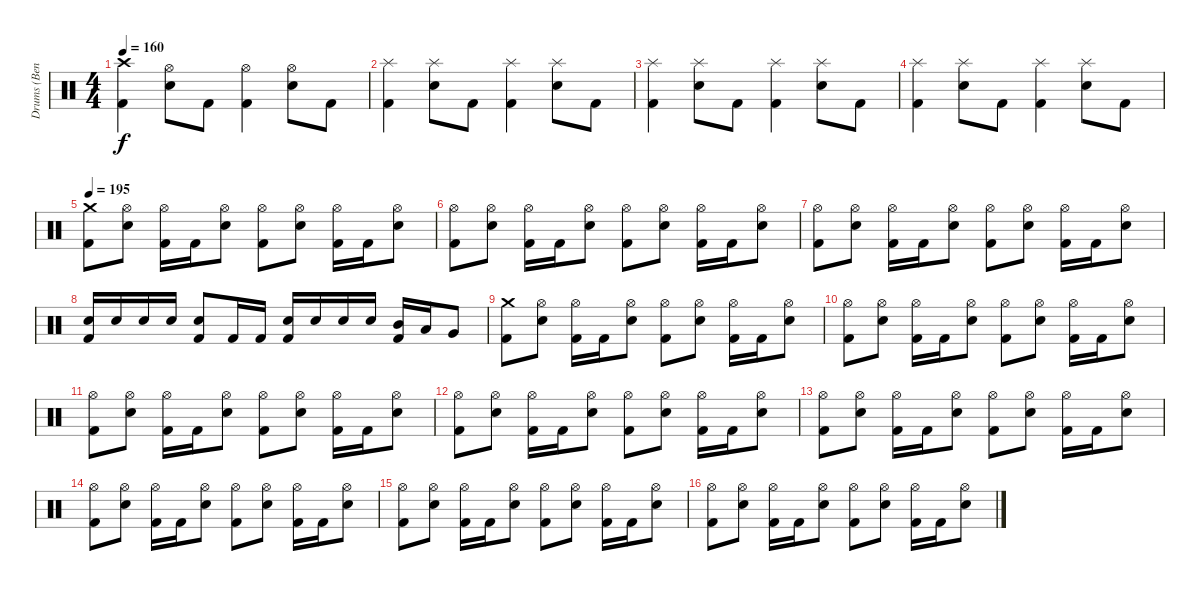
\track ("Drums (Ben)" "Drums (Ben") {instrument percussion}
\staff {score}
\articulation defaults
\ts (4 4)
\tempo 160
\clef neutral
\ks c
("Crash high (hit)" "Kick (hit) 2").4{dy f} ("Hi-Hat (open)" "Snare (hit) 2").8 "Kick (hit) 2".8 ("Hi-Hat (open)" "Kick (hit) 2").4 ("Hi-Hat (open)" "Snare (hit) 2").8 "Kick (hit) 2".8 |
("Splash (hit)" "Kick (hit) 2").4 ("Splash (hit)" "Snare (hit) 2").8 "Kick (hit) 2".8 ("Splash (hit)" "Kick (hit) 2").4 ("Splash (hit)" "Snare (hit) 2").8 "Kick (hit) 2".8 |
("Splash (hit)" "Kick (hit) 2").4 ("Splash (hit)" "Snare (hit) 2").8 "Kick (hit) 2".8 ("Splash (hit)" "Kick (hit) 2").4 ("Splash (hit)" "Snare (hit) 2").8 "Kick (hit) 2".8 |
("Splash (hit)" "Kick (hit) 2").4 ("Splash (hit)" "Snare (hit) 2").8 "Kick (hit) 2".8 ("Splash (hit)" "Kick (hit) 2").4 ("Splash (hit)" "Snare (hit) 2").8 "Kick (hit) 2".8 |
\tempo 195
("Crash medium (hit)" "Kick (hit) 2").8 ("Hi-Hat (open)" "Snare (hit) 2").8 ("Hi-Hat (open)" "Kick (hit) 2").16 "Kick (hit) 2".16 ("Hi-Hat (open)" "Snare (hit) 2").8 ("Hi-Hat (open)" "Kick (hit) 2").8 ("Hi-Hat (open)" "Snare (hit) 2").8 ("Hi-Hat (open)" "Kick (hit) 2").16 "Kick (hit) 2".16 ("Hi-Hat (open)" "Snare (hit) 2").8 |
("Hi-Hat (open)" "Kick (hit) 2").8 ("Hi-Hat (open)" "Snare (hit) 2").8 ("Hi-Hat (open)" "Kick (hit) 2").16 "Kick (hit) 2".16 ("Hi-Hat (open)" "Snare (hit) 2").8 ("Hi-Hat (open)" "Kick (hit) 2").8 ("Hi-Hat (open)" "Snare (hit) 2").8 ("Hi-Hat (open)" "Kick (hit) 2").16 "Kick (hit) 2".16 ("Hi-Hat (open)" "Snare (hit) 2").8 |
("Hi-Hat (open)" "Kick (hit) 2").8 ("Hi-Hat (open)" "Snare (hit) 2").8 ("Hi-Hat (open)" "Kick (hit) 2").16 "Kick (hit) 2".16 ("Hi-Hat (open)" "Snare (hit) 2").8 ("Hi-Hat (open)" "Kick (hit) 2").8 ("Hi-Hat (open)" "Snare (hit) 2").8 ("Hi-Hat (open)" "Kick (hit) 2").16 "Kick (hit) 2".16 ("Hi-Hat (open)" "Snare (hit) 2").8 |
("Snare (hit) 2" "Kick (hit) 2").16 "Snare (hit) 2".16 "Snare (hit) 2".16 "Snare (hit) 2".16 ("Snare (hit) 2" "Kick (hit) 2").8 "Kick (hit) 2".16 "Kick (hit) 2".16 ("Snare (hit) 2" "Kick (hit) 2").16 "Snare (hit) 2".16 "Snare (hit) 2".16 "Snare (hit) 2".16 ("Mid Tom (hit)" "Kick (hit) 2").16 "Low Tom (hit)".16 "Very Low Tom (hit)".8 |
("Crash medium (hit)" "Kick (hit) 2").8 ("Hi-Hat (open)" "Snare (hit) 2").8 ("Hi-Hat (open)" "Kick (hit) 2").16 "Kick (hit) 2".16 ("Hi-Hat (open)" "Snare (hit) 2").8 ("Hi-Hat (open)" "Kick (hit) 2").8 ("Hi-Hat (open)" "Snare (hit) 2").8 ("Hi-Hat (open)" "Kick (hit) 2").16 "Kick (hit) 2".16 ("Hi-Hat (open)" "Snare (hit) 2").8 |
("Hi-Hat (open)" "Kick (hit) 2").8 ("Hi-Hat (open)" "Snare (hit) 2").8 ("Hi-Hat (open)" "Kick (hit) 2").16 "Kick (hit) 2".16 ("Hi-Hat (open)" "Snare (hit) 2").8 ("Hi-Hat (open)" "Kick (hit) 2").8 ("Hi-Hat (open)" "Snare (hit) 2").8 ("Hi-Hat (open)" "Kick (hit) 2").16 "Kick (hit) 2".16 ("Hi-Hat (open)" "Snare (hit) 2").8 |
("Hi-Hat (open)" "Kick (hit) 2").8 ("Hi-Hat (open)" "Snare (hit) 2").8 ("Hi-Hat (open)" "Kick (hit) 2").16 "Kick (hit) 2".16 ("Hi-Hat (open)" "Snare (hit) 2").8 ("Hi-Hat (open)" "Kick (hit) 2").8 ("Hi-Hat (open)" "Snare (hit) 2").8 ("Hi-Hat (open)" "Kick (hit) 2").16 "Kick (hit) 2".16 ("Hi-Hat (open)" "Snare (hit) 2").8 |
("Hi-Hat (open)" "Kick (hit) 2").8 ("Hi-Hat (open)" "Snare (hit) 2").8 ("Hi-Hat (open)" "Kick (hit) 2").16 "Kick (hit) 2".16 ("Hi-Hat (open)" "Snare (hit) 2").8 ("Hi-Hat (open)" "Kick (hit) 2").8 ("Hi-Hat (open)" "Snare (hit) 2").8 ("Hi-Hat (open)" "Kick (hit) 2").16 "Kick (hit) 2".16 ("Hi-Hat (open)" "Snare (hit) 2").8 |
("Hi-Hat (open)" "Kick (hit) 2").8 ("Hi-Hat (open)" "Snare (hit) 2").8 ("Hi-Hat (open)" "Kick (hit) 2").16 "Kick (hit) 2".16 ("Hi-Hat (open)" "Snare (hit) 2").8 ("Hi-Hat (open)" "Kick (hit) 2").8 ("Hi-Hat (open)" "Snare (hit) 2").8 ("Hi-Hat (open)" "Kick (hit) 2").16 "Kick (hit) 2".16 ("Hi-Hat (open)" "Snare (hit) 2").8 |
("Hi-Hat (open)" "Kick (hit) 2").8 ("Hi-Hat (open)" "Snare (hit) 2").8 ("Hi-Hat (open)" "Kick (hit) 2").16 "Kick (hit) 2".16 ("Hi-Hat (open)" "Snare (hit) 2").8 ("Hi-Hat (open)" "Kick (hit) 2").8 ("Hi-Hat (open)" "Snare (hit) 2").8 ("Hi-Hat (open)" "Kick (hit) 2").16 "Kick (hit) 2".16 ("Hi-Hat (open)" "Snare (hit) 2").8 |
("Hi-Hat (open)" "Kick (hit) 2").8 ("Hi-Hat (open)" "Snare (hit) 2").8 ("Hi-Hat (open)" "Kick (hit) 2").16 "Kick (hit) 2".16 ("Hi-Hat (open)" "Snare (hit) 2").8 ("Hi-Hat (open)" "Kick (hit) 2").8 ("Hi-Hat (open)" "Snare (hit) 2").8 ("Hi-Hat (open)" "Kick (hit) 2").16 "Kick (hit) 2".16 ("Hi-Hat (open)" "Snare (hit) 2").8 |
("Hi-Hat (open)" "Kick (hit) 2").8 ("Hi-Hat (open)" "Snare (hit) 2").8 ("Hi-Hat (open)" "Kick (hit) 2").16 "Kick (hit) 2".16 ("Hi-Hat (open)" "Snare (hit) 2").8 ("Hi-Hat (open)" "Kick (hit) 2").8 ("Hi-Hat (open)" "Snare (hit) 2").8 ("Hi-Hat (open)" "Kick (hit) 2").16 "Kick (hit) 2".16 ("Hi-Hat (open)" "Snare (hit) 2").8
